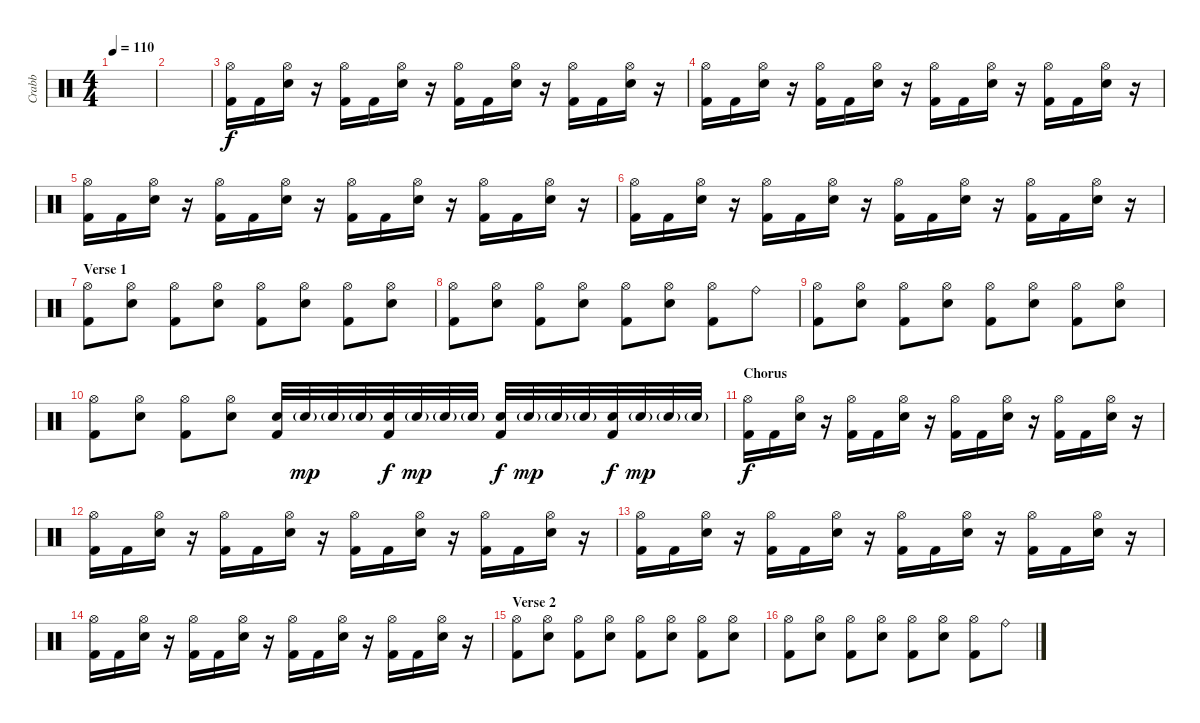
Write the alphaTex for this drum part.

\track ("Crabb" "Crabb") {instrument percussion}
\staff {score}
\articulation defaults
\ts (4 4)
\tempo 110
\clef neutral
\ks c
|
|
("Hi-Hat (open)" "Kick (hit) 2").16 "Kick (hit) 2".16 ("Hi-Hat (open)" "Electric Snare (hit)").16 r.16 ("Hi-Hat (open)" "Kick (hit) 2").16 "Kick (hit) 2".16 ("Hi-Hat (open)" "Electric Snare (hit)").16 r.16 ("Hi-Hat (open)" "Kick (hit) 2").16 "Kick (hit) 2".16 ("Hi-Hat (open)" "Electric Snare (hit)").16 r.16 ("Hi-Hat (open)" "Kick (hit) 2").16 "Kick (hit) 2".16 ("Hi-Hat (open)" "Electric Snare (hit)").16 r.16 |
("Hi-Hat (open)" "Kick (hit) 2").16 "Kick (hit) 2".16 ("Hi-Hat (open)" "Electric Snare (hit)").16 r.16 ("Hi-Hat (open)" "Kick (hit) 2").16 "Kick (hit) 2".16 ("Hi-Hat (open)" "Electric Snare (hit)").16 r.16 ("Hi-Hat (open)" "Kick (hit) 2").16 "Kick (hit) 2".16 ("Hi-Hat (open)" "Electric Snare (hit)").16 r.16 ("Hi-Hat (open)" "Kick (hit) 2").16 "Kick (hit) 2".16 ("Hi-Hat (open)" "Electric Snare (hit)").16 r.16 |
("Hi-Hat (open)" "Kick (hit) 2").16 "Kick (hit) 2".16 ("Hi-Hat (open)" "Electric Snare (hit)").16 r.16 ("Hi-Hat (open)" "Kick (hit) 2").16 "Kick (hit) 2".16 ("Hi-Hat (open)" "Electric Snare (hit)").16 r.16 ("Hi-Hat (open)" "Kick (hit) 2").16 "Kick (hit) 2".16 ("Hi-Hat (open)" "Electric Snare (hit)").16 r.16 ("Hi-Hat (open)" "Kick (hit) 2").16 "Kick (hit) 2".16 ("Hi-Hat (open)" "Electric Snare (hit)").16 r.16 |
("Hi-Hat (open)" "Kick (hit) 2").16 "Kick (hit) 2".16 ("Hi-Hat (open)" "Electric Snare (hit)").16 r.16 ("Hi-Hat (open)" "Kick (hit) 2").16 "Kick (hit) 2".16 ("Hi-Hat (open)" "Electric Snare (hit)").16 r.16 ("Hi-Hat (open)" "Kick (hit) 2").16 "Kick (hit) 2".16 ("Hi-Hat (open)" "Electric Snare (hit)").16 r.16 ("Hi-Hat (open)" "Kick (hit) 2").16 "Kick (hit) 2".16 ("Hi-Hat (open)" "Electric Snare (hit)").16 r.16 |
\section ("" "Verse 1")
("Hi-Hat (open)" "Kick (hit) 2").8 ("Hi-Hat (open)" "Electric Snare (hit)").8 ("Hi-Hat (open)" "Kick (hit) 2").8 ("Hi-Hat (open)" "Electric Snare (hit)").8 ("Hi-Hat (open)" "Kick (hit) 2").8 ("Hi-Hat (open)" "Electric Snare (hit)").8 ("Hi-Hat (open)" "Kick (hit) 2").8 ("Hi-Hat (open)" "Electric Snare (hit)").8 |
("Hi-Hat (open)" "Kick (hit) 2").8 ("Hi-Hat (open)" "Electric Snare (hit)").8 ("Hi-Hat (open)" "Kick (hit) 2").8 ("Hi-Hat (open)" "Electric Snare (hit)").8 ("Hi-Hat (open)" "Kick (hit) 2").8 ("Hi-Hat (open)" "Electric Snare (hit)").8 ("Hi-Hat (open)" "Kick (hit) 2").8 "Ride (bell)".8 |
("Hi-Hat (open)" "Kick (hit) 2").8 ("Hi-Hat (open)" "Electric Snare (hit)").8 ("Hi-Hat (open)" "Kick (hit) 2").8 ("Hi-Hat (open)" "Electric Snare (hit)").8 ("Hi-Hat (open)" "Kick (hit) 2").8 ("Hi-Hat (open)" "Electric Snare (hit)").8 ("Hi-Hat (open)" "Kick (hit) 2").8 ("Hi-Hat (open)" "Electric Snare (hit)").8 |
("Hi-Hat (open)" "Kick (hit) 2").8 ("Hi-Hat (open)" "Electric Snare (hit)").8 ("Hi-Hat (open)" "Kick (hit) 2").8 ("Hi-Hat (open)" "Electric Snare (hit)").8 ("Electric Snare (hit)" "Kick (hit) 2").32 "Electric Snare (hit)"{g}.32{dy mp} "Electric Snare (hit)"{g}.32 "Electric Snare (hit)"{g}.32 ("Electric Snare (hit)" "Kick (hit) 2").32{dy f} "Electric Snare (hit)"{g}.32{dy mp} "Electric Snare (hit)"{g}.32 "Electric Snare (hit)"{g}.32 ("Electric Snare (hit)" "Kick (hit) 2").32{dy f} "Electric Snare (hit)"{g}.32{dy mp} "Electric Snare (hit)"{g}.32 "Electric Snare (hit)"{g}.32 ("Electric Snare (hit)" "Kick (hit) 2").32{dy f} "Electric Snare (hit)"{g}.32{dy mp} "Electric Snare (hit)"{g}.32 "Electric Snare (hit)"{g}.32 |
\section ("" "Chorus")
("Hi-Hat (open)" "Kick (hit) 2").16{dy f} "Kick (hit) 2".16 ("Hi-Hat (open)" "Electric Snare (hit)").16 r.16 ("Hi-Hat (open)" "Kick (hit) 2").16 "Kick (hit) 2".16 ("Hi-Hat (open)" "Electric Snare (hit)").16 r.16 ("Hi-Hat (open)" "Kick (hit) 2").16 "Kick (hit) 2".16 ("Hi-Hat (open)" "Electric Snare (hit)").16 r.16 ("Hi-Hat (open)" "Kick (hit) 2").16 "Kick (hit) 2".16 ("Hi-Hat (open)" "Electric Snare (hit)").16 r.16 |
("Hi-Hat (open)" "Kick (hit) 2").16 "Kick (hit) 2".16 ("Hi-Hat (open)" "Electric Snare (hit)").16 r.16 ("Hi-Hat (open)" "Kick (hit) 2").16 "Kick (hit) 2".16 ("Hi-Hat (open)" "Electric Snare (hit)").16 r.16 ("Hi-Hat (open)" "Kick (hit) 2").16 "Kick (hit) 2".16 ("Hi-Hat (open)" "Electric Snare (hit)").16 r.16 ("Hi-Hat (open)" "Kick (hit) 2").16 "Kick (hit) 2".16 ("Hi-Hat (open)" "Electric Snare (hit)").16 r.16 |
("Hi-Hat (open)" "Kick (hit) 2").16 "Kick (hit) 2".16 ("Hi-Hat (open)" "Electric Snare (hit)").16 r.16 ("Hi-Hat (open)" "Kick (hit) 2").16 "Kick (hit) 2".16 ("Hi-Hat (open)" "Electric Snare (hit)").16 r.16 ("Hi-Hat (open)" "Kick (hit) 2").16 "Kick (hit) 2".16 ("Hi-Hat (open)" "Electric Snare (hit)").16 r.16 ("Hi-Hat (open)" "Kick (hit) 2").16 "Kick (hit) 2".16 ("Hi-Hat (open)" "Electric Snare (hit)").16 r.16 |
("Hi-Hat (open)" "Kick (hit) 2").16 "Kick (hit) 2".16 ("Hi-Hat (open)" "Electric Snare (hit)").16 r.16 ("Hi-Hat (open)" "Kick (hit) 2").16 "Kick (hit) 2".16 ("Hi-Hat (open)" "Electric Snare (hit)").16 r.16 ("Hi-Hat (open)" "Kick (hit) 2").16 "Kick (hit) 2".16 ("Hi-Hat (open)" "Electric Snare (hit)").16 r.16 ("Hi-Hat (open)" "Kick (hit) 2").16 "Kick (hit) 2".16 ("Hi-Hat (open)" "Electric Snare (hit)").16 r.16 |
\section ("" "Verse 2")
("Hi-Hat (open)" "Kick (hit) 2").8 ("Hi-Hat (open)" "Electric Snare (hit)").8 ("Hi-Hat (open)" "Kick (hit) 2").8 ("Hi-Hat (open)" "Electric Snare (hit)").8 ("Hi-Hat (open)" "Kick (hit) 2").8 ("Hi-Hat (open)" "Electric Snare (hit)").8 ("Hi-Hat (open)" "Kick (hit) 2").8 ("Hi-Hat (open)" "Electric Snare (hit)").8 |
("Hi-Hat (open)" "Kick (hit) 2").8 ("Hi-Hat (open)" "Electric Snare (hit)").8 ("Hi-Hat (open)" "Kick (hit) 2").8 ("Hi-Hat (open)" "Electric Snare (hit)").8 ("Hi-Hat (open)" "Kick (hit) 2").8 ("Hi-Hat (open)" "Electric Snare (hit)").8 ("Hi-Hat (open)" "Kick (hit) 2").8 "Ride (bell)".8
